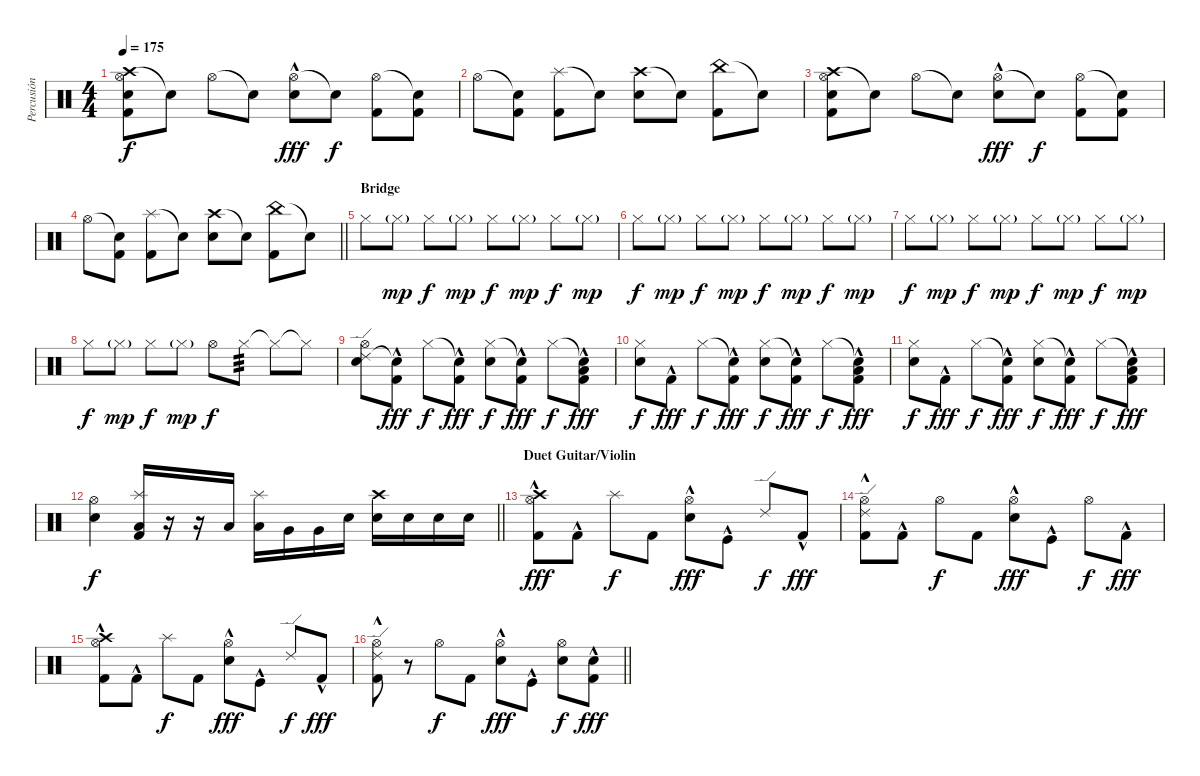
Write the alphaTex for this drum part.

\track ("Percusión" "Percusión") {instrument percussion}
\staff {score}
\articulation defaults
\ts (4 4)
\tempo 175
\clef neutral
\ks c
("Crash high (hit)" "Hi-Hat (open)" "Electric Snare (hit)" "Kick (hit) 2").8{dy f} "Snare (hit)"{t}.8 "Hi-Hat (open)".8 "Snare (hit)"{t}.8 ("Hi-Hat (open)" "Electric Snare (hit)"{hac}).8{dy fff} "Snare (hit)"{t}.8{dy f} ("Hi-Hat (open)" "Kick (hit) 2").8 ("Snare (hit)"{t} "Kick (hit) 2").8 |
"Hi-Hat (open)".8 ("Snare (hit)"{t} "Kick (hit) 2").8 ("Splash (hit)" "Kick (hit) 2").8 "Snare (hit)"{t}.8 ("Crash high (hit)" "Electric Snare (hit)").8 "Snare (hit)"{t}.8 ("China (hit)" "Kick (hit) 2").8 "Snare (hit)"{t}.8 |
("Crash high (hit)" "Hi-Hat (open)" "Electric Snare (hit)" "Kick (hit) 2").8 "Snare (hit)"{t}.8 "Hi-Hat (open)".8 "Snare (hit)"{t}.8 ("Hi-Hat (open)" "Electric Snare (hit)"{hac}).8{dy fff} "Snare (hit)"{t}.8{dy f} ("Hi-Hat (open)" "Kick (hit) 2").8 ("Snare (hit)"{t} "Kick (hit) 2").8 |
\barLineRight lightlight "Hi-Hat (open)".8
("Snare (hit)"{t} "Kick (hit) 2").8 ("Splash (hit)" "Kick (hit) 2").8 "Snare (hit)"{t}.8 ("Crash high (hit)" "Electric Snare (hit)").8 "Snare (hit)"{t}.8 ("China (hit)" "Kick (hit) 2").8 "Snare (hit)"{t}.8 |
\section ("" "Bridge")
"Hi-Hat (closed)".8 "Hi-Hat (closed)"{g}.8{dy mp} "Hi-Hat (closed)".8{dy f} "Hi-Hat (closed)"{g}.8{dy mp} "Hi-Hat (closed)".8{dy f} "Hi-Hat (closed)"{g}.8{dy mp} "Hi-Hat (closed)".8{dy f} "Hi-Hat (closed)"{g}.8{dy mp} |
"Hi-Hat (closed)".8{dy f} "Hi-Hat (closed)"{g}.8{dy mp} "Hi-Hat (closed)".8{dy f} "Hi-Hat (closed)"{g}.8{dy mp} "Hi-Hat (closed)".8{dy f} "Hi-Hat (closed)"{g}.8{dy mp} "Hi-Hat (closed)".8{dy f} "Hi-Hat (closed)"{g}.8{dy mp} |
"Hi-Hat (closed)".8{dy f} "Hi-Hat (closed)"{g}.8{dy mp} "Hi-Hat (closed)".8{dy f} "Hi-Hat (closed)"{g}.8{dy mp} "Hi-Hat (closed)".8{dy f} "Hi-Hat (closed)"{g}.8{dy mp} "Hi-Hat (closed)".8{dy f} "Hi-Hat (closed)"{g}.8{dy mp} |
"Hi-Hat (closed)".8{dy f} "Hi-Hat (closed)"{g}.8{dy mp} "Hi-Hat (closed)".8{dy f} "Hi-Hat (closed)"{g}.8{dy mp} "Hi-Hat (open)".8{dy f} "Hi-Hat (closed)".8{tp 3} "Hi-Hat (closed)"{t}.8 "Hi-Hat (closed)"{t}.8 |
("Ride (edge) 2" "Hi-Hat (open)" "Electric Snare (hit)").8 ("Snare (hit)"{t} "Kick (hit) 2"{hac}).8{dy fff} "Hi-Hat (closed)".8{dy f} ("Snare (hit)"{t} "Kick (hit) 2"{hac}).8{dy fff} ("Hi-Hat (closed)" "Electric Snare (hit)").8{dy f} ("Snare (hit)"{t} "Kick (hit) 2"{hac}).8{dy fff} "Hi-Hat (closed)".8{dy f} ("Snare (hit)"{t} "Low Floor Tom (hit)" "Kick (hit) 2"{hac}).8{dy fff} |
("Hi-Hat (closed)" "Electric Snare (hit)").8{dy f} "Kick (hit) 2"{hac}.8{dy fff} "Hi-Hat (closed)".8{dy f} ("Snare (hit)"{t} "Kick (hit) 2"{hac}).8{dy fff} ("Hi-Hat (closed)" "Electric Snare (hit)").8{dy f} ("Snare (hit)"{t} "Kick (hit) 2"{hac}).8{dy fff} "Hi-Hat (closed)".8{dy f} ("Snare (hit)"{t} "Low Floor Tom (hit)" "Kick (hit) 2"{hac}).8{dy fff} |
("Hi-Hat (closed)" "Electric Snare (hit)").8{dy f} "Kick (hit) 2"{hac}.8{dy fff} "Hi-Hat (closed)".8{dy f} ("Snare (hit)"{t} "Kick (hit) 2"{hac}).8{dy fff} ("Hi-Hat (closed)" "Electric Snare (hit)").8{dy f} ("Snare (hit)"{t} "Kick (hit) 2"{hac}).8{dy fff} "Hi-Hat (closed)".8{dy f} ("Snare (hit)"{t} "Low Floor Tom (hit)" "Kick (hit) 2"{hac}).8{dy fff} |
\barLineRight lightlight
("Hi-Hat (open)" "Electric Snare (hit)").4{dy f} ("Splash (hit)" "Low Floor Tom (hit)" "Kick (hit) 2").16 r.16 r.16 "Low Floor Tom (hit)".16 ("Splash (hit)" "Low Floor Tom (hit)").16 "Very Low Tom (hit)".16 "Very Low Tom (hit)".16 "Electric Snare (hit)".16 ("Crash high (hit)" "Electric Snare (hit)").16 "Electric Snare (hit)".16 "Electric Snare (hit)".16 "Electric Snare (hit)".16 |
\section ("" "Duet Guitar/Violin")
("Hi-Hat (open)" "Crash high (hit)" "Kick (hit) 2"{hac}).8{dy fff} "Kick (hit) 2"{hac}.8 "Splash (hit)".8{dy f} "Kick (hit) 2".8 ("Hi-Hat (open)" "Electric Snare (hit)"{hac}).8{dy fff} "Kick (hit)"{hac}.8 "Ride (edge) 2".8{dy f} "Kick (hit) 2"{hac}.8{dy fff} |
("Hi-Hat (open)" "Ride (edge) 2" "Kick (hit) 2"{hac}).8 "Kick (hit) 2"{hac}.8 "Hi-Hat (open)".8{dy f} "Kick (hit) 2".8 ("Hi-Hat (open)" "Electric Snare (hit)"{hac}).8{dy fff} "Kick (hit)"{hac}.8 "Hi-Hat (open)".8{dy f} "Kick (hit) 2"{hac}.8{dy fff} |
("Hi-Hat (open)" "Crash high (hit)" "Kick (hit) 2"{hac}).8 "Kick (hit) 2"{hac}.8 "Splash (hit)".8{dy f} "Kick (hit) 2".8 ("Hi-Hat (open)" "Electric Snare (hit)"{hac}).8{dy fff} "Kick (hit)"{hac}.8 "Ride (edge) 2".8{dy f} "Kick (hit) 2"{hac}.8{dy fff} |
\barLineRight lightlight
("Hi-Hat (open)" "Ride (edge) 2" "Kick (hit) 2"{hac}).8 r.8 "Hi-Hat (open)".8{dy f} "Kick (hit) 2".8 ("Hi-Hat (open)" "Electric Snare (hit)"{hac}).8{dy fff} "Kick (hit)"{hac}.8 ("Hi-Hat (open)" "Electric Snare (hit)").8{dy f} ("Electric Snare (hit)" "Kick (hit) 2"{hac}).8{dy fff}
